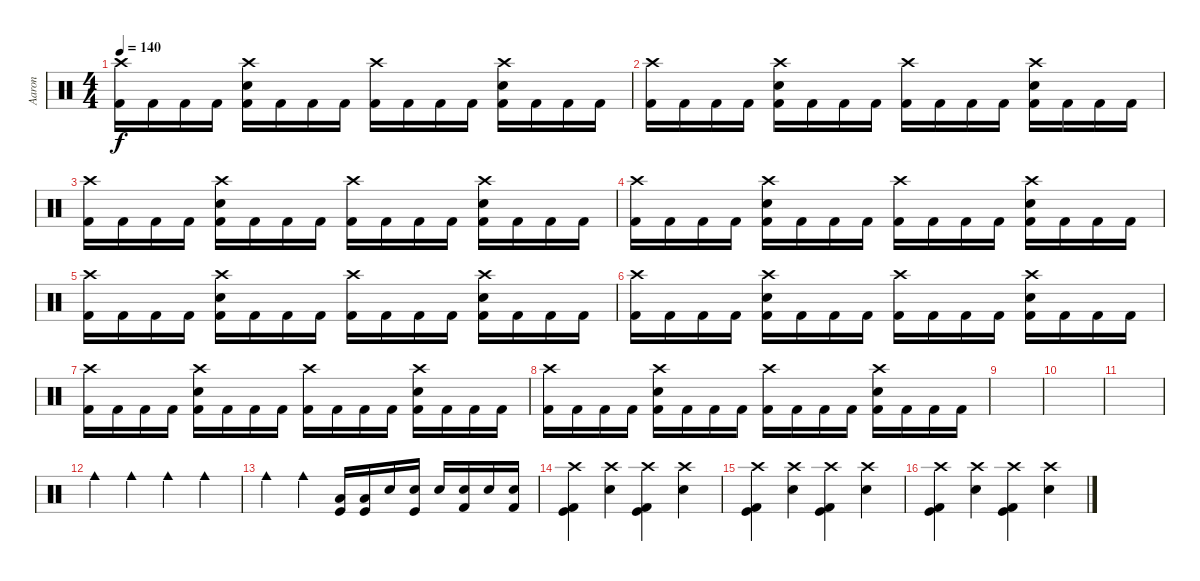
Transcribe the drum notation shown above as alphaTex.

\track ("Aaron" "Aaron") {instrument percussion}
\staff {score}
\articulation defaults
\ts (4 4)
\tempo 140
\clef neutral
\ks c
("Crash high (hit)" "Kick (hit) 2").16{dy f} "Kick (hit) 2".16 "Kick (hit) 2".16 "Kick (hit) 2".16 ("Crash high (hit)" "Snare (hit) 2" "Kick (hit) 2").16 "Kick (hit) 2".16 "Kick (hit) 2".16 "Kick (hit) 2".16 ("Crash high (hit)" "Kick (hit) 2").16 "Kick (hit) 2".16 "Kick (hit) 2".16 "Kick (hit) 2".16 ("Crash high (hit)" "Snare (hit) 2" "Kick (hit) 2").16 "Kick (hit) 2".16 "Kick (hit) 2".16 "Kick (hit) 2".16 |
("Crash high (hit)" "Kick (hit) 2").16 "Kick (hit) 2".16 "Kick (hit) 2".16 "Kick (hit) 2".16 ("Crash high (hit)" "Snare (hit) 2" "Kick (hit) 2").16 "Kick (hit) 2".16 "Kick (hit) 2".16 "Kick (hit) 2".16 ("Crash high (hit)" "Kick (hit) 2").16 "Kick (hit) 2".16 "Kick (hit) 2".16 "Kick (hit) 2".16 ("Crash high (hit)" "Snare (hit) 2" "Kick (hit) 2").16 "Kick (hit) 2".16 "Kick (hit) 2".16 "Kick (hit) 2".16 |
("Crash high (hit)" "Kick (hit) 2").16 "Kick (hit) 2".16 "Kick (hit) 2".16 "Kick (hit) 2".16 ("Crash high (hit)" "Snare (hit) 2" "Kick (hit) 2").16 "Kick (hit) 2".16 "Kick (hit) 2".16 "Kick (hit) 2".16 ("Crash high (hit)" "Kick (hit) 2").16 "Kick (hit) 2".16 "Kick (hit) 2".16 "Kick (hit) 2".16 ("Crash high (hit)" "Snare (hit) 2" "Kick (hit) 2").16 "Kick (hit) 2".16 "Kick (hit) 2".16 "Kick (hit) 2".16 |
("Crash high (hit)" "Kick (hit) 2").16 "Kick (hit) 2".16 "Kick (hit) 2".16 "Kick (hit) 2".16 ("Crash high (hit)" "Snare (hit) 2" "Kick (hit) 2").16 "Kick (hit) 2".16 "Kick (hit) 2".16 "Kick (hit) 2".16 ("Crash high (hit)" "Kick (hit) 2").16 "Kick (hit) 2".16 "Kick (hit) 2".16 "Kick (hit) 2".16 ("Crash high (hit)" "Snare (hit) 2" "Kick (hit) 2").16 "Kick (hit) 2".16 "Kick (hit) 2".16 "Kick (hit) 2".16 |
("Crash high (hit)" "Kick (hit) 2").16 "Kick (hit) 2".16 "Kick (hit) 2".16 "Kick (hit) 2".16 ("Crash high (hit)" "Snare (hit) 2" "Kick (hit) 2").16 "Kick (hit) 2".16 "Kick (hit) 2".16 "Kick (hit) 2".16 ("Crash high (hit)" "Kick (hit) 2").16 "Kick (hit) 2".16 "Kick (hit) 2".16 "Kick (hit) 2".16 ("Crash high (hit)" "Snare (hit) 2" "Kick (hit) 2").16 "Kick (hit) 2".16 "Kick (hit) 2".16 "Kick (hit) 2".16 |
("Crash high (hit)" "Kick (hit) 2").16 "Kick (hit) 2".16 "Kick (hit) 2".16 "Kick (hit) 2".16 ("Crash high (hit)" "Snare (hit) 2" "Kick (hit) 2").16 "Kick (hit) 2".16 "Kick (hit) 2".16 "Kick (hit) 2".16 ("Crash high (hit)" "Kick (hit) 2").16 "Kick (hit) 2".16 "Kick (hit) 2".16 "Kick (hit) 2".16 ("Crash high (hit)" "Snare (hit) 2" "Kick (hit) 2").16 "Kick (hit) 2".16 "Kick (hit) 2".16 "Kick (hit) 2".16 |
("Crash high (hit)" "Kick (hit) 2").16 "Kick (hit) 2".16 "Kick (hit) 2".16 "Kick (hit) 2".16 ("Crash high (hit)" "Snare (hit) 2" "Kick (hit) 2").16 "Kick (hit) 2".16 "Kick (hit) 2".16 "Kick (hit) 2".16 ("Crash high (hit)" "Kick (hit) 2").16 "Kick (hit) 2".16 "Kick (hit) 2".16 "Kick (hit) 2".16 ("Crash high (hit)" "Snare (hit) 2" "Kick (hit) 2").16 "Kick (hit) 2".16 "Kick (hit) 2".16 "Kick (hit) 2".16 |
("Crash high (hit)" "Kick (hit) 2").16 "Kick (hit) 2".16 "Kick (hit) 2".16 "Kick (hit) 2".16 ("Crash high (hit)" "Snare (hit) 2" "Kick (hit) 2").16 "Kick (hit) 2".16 "Kick (hit) 2".16 "Kick (hit) 2".16 ("Crash high (hit)" "Kick (hit) 2").16 "Kick (hit) 2".16 "Kick (hit) 2".16 "Kick (hit) 2".16 ("Crash high (hit)" "Snare (hit) 2" "Kick (hit) 2").16 "Kick (hit) 2".16 "Kick (hit) 2".16 "Kick (hit) 2".16 |
|
|
|
"Cowbell medium (hit)".4 "Cowbell medium (hit)".4 "Cowbell medium (hit)".4 "Cowbell medium (hit)".4 |
"Cowbell medium (hit)".4 "Cowbell medium (hit)".4 ("Low Floor Tom (hit)" "Kick (hit)").16 ("Low Floor Tom (hit)" "Kick (hit)").16 "Snare (hit) 2".16 ("Snare (hit) 2" "Kick (hit)").16 "Snare (hit) 2".16 ("Snare (hit) 2" "Kick (hit) 2").16 "Snare (hit) 2".16 ("Snare (hit) 2" "Kick (hit) 2").16 |
("Crash high (hit)" "Kick (hit) 2" "Kick (hit)").4 ("Crash high (hit)" "Snare (hit) 2").4 ("Crash high (hit)" "Kick (hit) 2" "Kick (hit)").4 ("Crash high (hit)" "Snare (hit) 2").4 |
("Crash high (hit)" "Kick (hit) 2" "Kick (hit)").4 ("Crash high (hit)" "Snare (hit) 2").4 ("Crash high (hit)" "Kick (hit) 2" "Kick (hit)").4 ("Crash high (hit)" "Snare (hit) 2").4 |
("Crash high (hit)" "Kick (hit) 2" "Kick (hit)").4 ("Crash high (hit)" "Snare (hit) 2").4 ("Crash high (hit)" "Kick (hit) 2" "Kick (hit)").4 ("Crash high (hit)" "Snare (hit) 2").4
